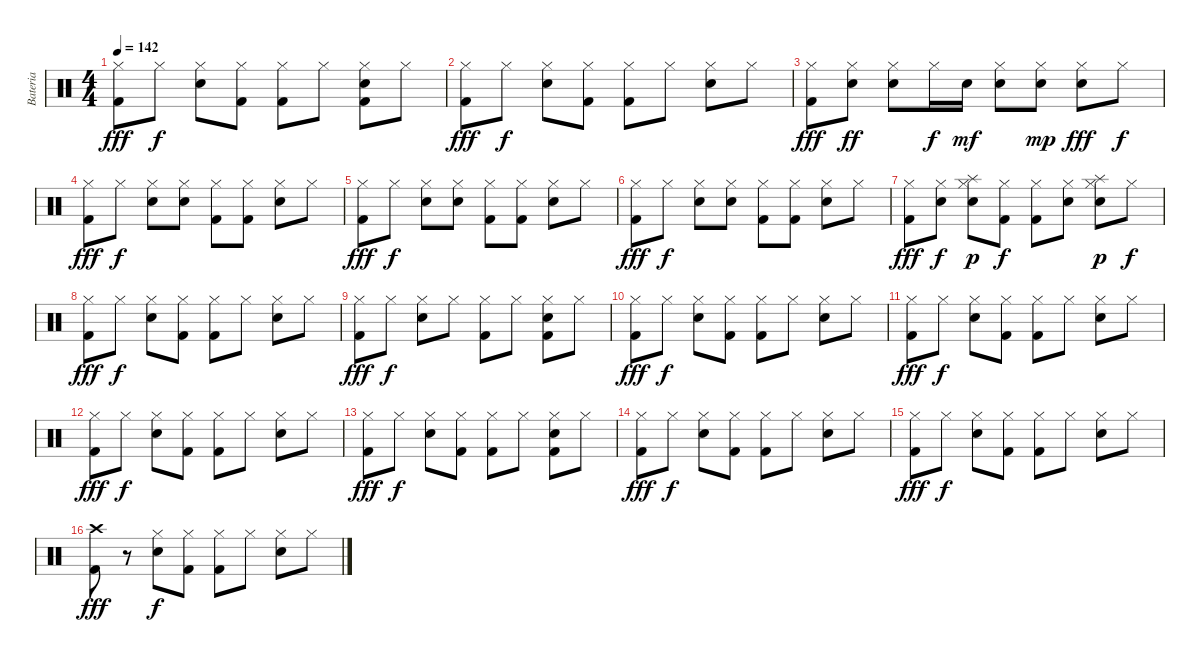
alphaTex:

\track ("Bateria" "Bateria") {instrument percussion}
\staff {score}
\articulation defaults
\ts (4 4)
\tempo 142
\clef neutral
\ks c
("Hi-Hat (closed)" "Kick (hit) 2").8{dy fff} "Hi-Hat (closed)".8{dy f} ("Hi-Hat (closed)" "Electric Snare (hit)").8 ("Hi-Hat (closed)" "Kick (hit) 2").8 ("Hi-Hat (closed)" "Kick (hit) 2").8 "Hi-Hat (closed)".8 ("Hi-Hat (closed)" "Electric Snare (hit)" "Kick (hit) 2").8 "Hi-Hat (closed)".8 |
("Hi-Hat (closed)" "Kick (hit) 2").8{dy fff} "Hi-Hat (closed)".8{dy f} ("Hi-Hat (closed)" "Electric Snare (hit)").8 ("Hi-Hat (closed)" "Kick (hit) 2").8 ("Hi-Hat (closed)" "Kick (hit) 2").8 "Hi-Hat (closed)".8 ("Hi-Hat (closed)" "Electric Snare (hit)").8 "Hi-Hat (closed)".8 |
("Hi-Hat (closed)" "Kick (hit) 2").8{dy fff} ("Hi-Hat (closed)" "Electric Snare (hit)").8{dy ff} ("Hi-Hat (closed)" "Electric Snare (hit)").8 "Hi-Hat (closed)".16{dy f} "Electric Snare (hit)".16{dy mf} ("Hi-Hat (closed)" "Electric Snare (hit)").8 ("Hi-Hat (closed)" "Electric Snare (hit)").8{dy mp} ("Hi-Hat (closed)" "Electric Snare (hit)").8{dy fff} "Hi-Hat (closed)".8{dy f} |
("Hi-Hat (closed)" "Kick (hit) 2").8{dy fff} "Hi-Hat (closed)".8{dy f} ("Hi-Hat (closed)" "Electric Snare (hit)").8 ("Hi-Hat (closed)" "Electric Snare (hit)").8 ("Hi-Hat (closed)" "Kick (hit) 2").8 ("Hi-Hat (closed)" "Kick (hit) 2").8 ("Hi-Hat (closed)" "Electric Snare (hit)").8 "Hi-Hat (closed)".8 |
("Hi-Hat (closed)" "Kick (hit) 2").8{dy fff} "Hi-Hat (closed)".8{dy f} ("Hi-Hat (closed)" "Electric Snare (hit)").8 ("Hi-Hat (closed)" "Electric Snare (hit)").8 ("Hi-Hat (closed)" "Kick (hit) 2").8 ("Hi-Hat (closed)" "Kick (hit) 2").8 ("Hi-Hat (closed)" "Electric Snare (hit)").8 "Hi-Hat (closed)".8 |
("Hi-Hat (closed)" "Kick (hit) 2").8{dy fff} "Hi-Hat (closed)".8{dy f} ("Hi-Hat (closed)" "Electric Snare (hit)").8 ("Hi-Hat (closed)" "Electric Snare (hit)").8 ("Hi-Hat (closed)" "Kick (hit) 2").8 ("Hi-Hat (closed)" "Kick (hit) 2").8 ("Hi-Hat (closed)" "Electric Snare (hit)").8 "Hi-Hat (closed)".8 |
("Hi-Hat (closed)" "Kick (hit) 2").8{dy fff} ("Hi-Hat (closed)" "Electric Snare (hit)").8{dy f} ("Splash (hit)" "Hi-Hat (closed)" "Electric Snare (hit)").8{dy p} ("Hi-Hat (closed)" "Kick (hit) 2").8{dy f} ("Hi-Hat (closed)" "Kick (hit) 2").8 ("Hi-Hat (closed)" "Electric Snare (hit)").8 ("Splash (hit)" "Hi-Hat (closed)" "Electric Snare (hit)").8{dy p} "Hi-Hat (closed)".8{dy f} |
("Hi-Hat (closed)" "Kick (hit) 2").8{dy fff} "Hi-Hat (closed)".8{dy f} ("Hi-Hat (closed)" "Electric Snare (hit)").8 ("Hi-Hat (closed)" "Kick (hit) 2").8 ("Hi-Hat (closed)" "Kick (hit) 2").8 "Hi-Hat (closed)".8 ("Hi-Hat (closed)" "Electric Snare (hit)").8 "Hi-Hat (closed)".8 |
("Hi-Hat (closed)" "Kick (hit) 2").8{dy fff} "Hi-Hat (closed)".8{dy f} ("Hi-Hat (closed)" "Electric Snare (hit)").8 "Hi-Hat (closed)".8 ("Hi-Hat (closed)" "Kick (hit) 2").8 "Hi-Hat (closed)".8 ("Hi-Hat (closed)" "Electric Snare (hit)" "Kick (hit) 2").8 "Hi-Hat (closed)".8 |
("Hi-Hat (closed)" "Kick (hit) 2").8{dy fff} "Hi-Hat (closed)".8{dy f} ("Hi-Hat (closed)" "Electric Snare (hit)").8 ("Hi-Hat (closed)" "Kick (hit) 2").8 ("Hi-Hat (closed)" "Kick (hit) 2").8 "Hi-Hat (closed)".8 ("Hi-Hat (closed)" "Electric Snare (hit)").8 "Hi-Hat (closed)".8 |
("Hi-Hat (closed)" "Kick (hit) 2").8{dy fff} "Hi-Hat (closed)".8{dy f} ("Hi-Hat (closed)" "Electric Snare (hit)").8 ("Hi-Hat (closed)" "Kick (hit) 2").8 ("Hi-Hat (closed)" "Kick (hit) 2").8 "Hi-Hat (closed)".8 ("Hi-Hat (closed)" "Electric Snare (hit)").8 "Hi-Hat (closed)".8 |
("Hi-Hat (closed)" "Kick (hit) 2").8{dy fff} "Hi-Hat (closed)".8{dy f} ("Hi-Hat (closed)" "Electric Snare (hit)").8 ("Hi-Hat (closed)" "Kick (hit) 2").8 ("Hi-Hat (closed)" "Kick (hit) 2").8 "Hi-Hat (closed)".8 ("Hi-Hat (closed)" "Electric Snare (hit)").8 "Hi-Hat (closed)".8 |
("Hi-Hat (closed)" "Kick (hit) 2").8{dy fff} "Hi-Hat (closed)".8{dy f} ("Hi-Hat (closed)" "Electric Snare (hit)").8 ("Hi-Hat (closed)" "Kick (hit) 2").8 ("Hi-Hat (closed)" "Kick (hit) 2").8 "Hi-Hat (closed)".8 ("Hi-Hat (closed)" "Electric Snare (hit)" "Kick (hit) 2").8 "Hi-Hat (closed)".8 |
("Hi-Hat (closed)" "Kick (hit) 2").8{dy fff} "Hi-Hat (closed)".8{dy f} ("Hi-Hat (closed)" "Electric Snare (hit)").8 ("Hi-Hat (closed)" "Kick (hit) 2").8 ("Hi-Hat (closed)" "Kick (hit) 2").8 "Hi-Hat (closed)".8 ("Hi-Hat (closed)" "Electric Snare (hit)").8 "Hi-Hat (closed)".8 |
("Hi-Hat (closed)" "Kick (hit) 2").8{dy fff} "Hi-Hat (closed)".8{dy f} ("Hi-Hat (closed)" "Electric Snare (hit)").8 ("Hi-Hat (closed)" "Kick (hit) 2").8 ("Hi-Hat (closed)" "Kick (hit) 2").8 "Hi-Hat (closed)".8 ("Hi-Hat (closed)" "Electric Snare (hit)").8 "Hi-Hat (closed)".8 |
("Crash high (hit)" "Kick (hit) 2").8{dy fff} r.8 ("Hi-Hat (closed)" "Electric Snare (hit)").8{dy f} ("Hi-Hat (closed)" "Kick (hit) 2").8 ("Hi-Hat (closed)" "Kick (hit) 2").8 "Hi-Hat (closed)".8 ("Hi-Hat (closed)" "Electric Snare (hit)").8 "Hi-Hat (closed)".8
